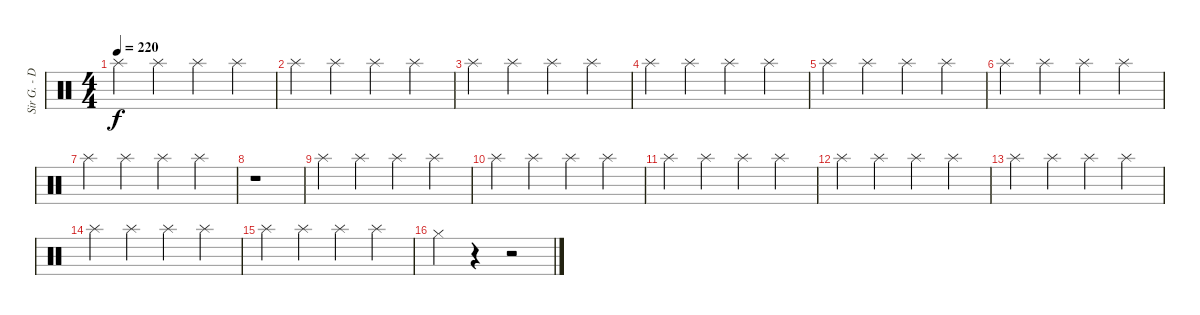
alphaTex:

\track ("Sir G. - Drums" "Sir G. - D") {instrument percussion}
\staff {score}
\articulation defaults
\ts (4 4)
\tempo 220
\clef neutral
\ks c "Splash (hit)".4{dy f} "Splash (hit)".4 "Splash (hit)".4 "Splash (hit)".4
|
"Splash (hit)".4 "Splash (hit)".4 "Splash (hit)".4 "Splash (hit)".4 |
"Splash (hit)".4 "Splash (hit)".4 "Splash (hit)".4 "Splash (hit)".4 |
"Splash (hit)".4 "Splash (hit)".4 "Splash (hit)".4 "Splash (hit)".4 |
"Splash (hit)".4 "Splash (hit)".4 "Splash (hit)".4 "Splash (hit)".4 |
"Splash (hit)".4 "Splash (hit)".4 "Splash (hit)".4 "Splash (hit)".4 |
"Splash (hit)".4 "Splash (hit)".4 "Splash (hit)".4 "Splash (hit)".4 |
r.1 |
"Splash (hit)".4 "Splash (hit)".4 "Splash (hit)".4 "Splash (hit)".4 |
"Splash (hit)".4 "Splash (hit)".4 "Splash (hit)".4 "Splash (hit)".4 |
"Splash (hit)".4 "Splash (hit)".4 "Splash (hit)".4 "Splash (hit)".4 |
"Splash (hit)".4 "Splash (hit)".4 "Splash (hit)".4 "Splash (hit)".4 |
"Splash (hit)".4 "Splash (hit)".4 "Splash (hit)".4 "Splash (hit)".4 |
"Splash (hit)".4 "Splash (hit)".4 "Splash (hit)".4 "Splash (hit)".4 |
"Splash (hit)".4 "Splash (hit)".4 "Splash (hit)".4 "Splash (hit)".4 |
"Hi-Hat (closed)".4 r.4 r.2
